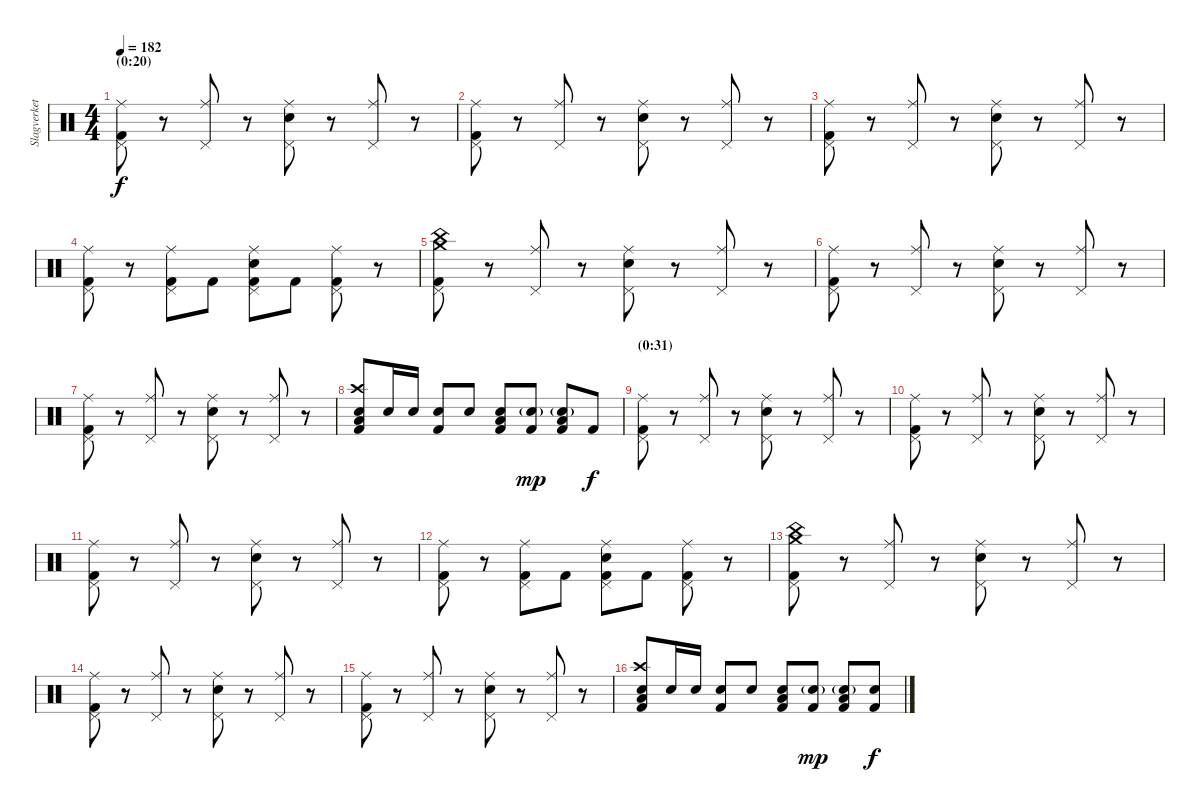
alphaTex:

\track ("Slagverket! =)" "Slagverket") {instrument percussion}
\staff {score}
\articulation defaults
\ts (4 4)
\section ("" "(0:20)")
\tempo 182
\clef neutral
\ks c
("Ride (middle)" "Pedal Hi-Hat (hit)" "Kick (hit) 2").8{dy f} r.8 ("Ride (middle)" "Pedal Hi-Hat (hit)").8 r.8 ("Ride (middle)" "Pedal Hi-Hat (hit)" "Snare (hit) 2").8 r.8 ("Ride (middle)" "Pedal Hi-Hat (hit)").8 r.8 |
("Ride (middle)" "Pedal Hi-Hat (hit)" "Kick (hit) 2").8 r.8 ("Ride (middle)" "Pedal Hi-Hat (hit)").8 r.8 ("Ride (middle)" "Pedal Hi-Hat (hit)" "Snare (hit) 2").8 r.8 ("Ride (middle)" "Pedal Hi-Hat (hit)").8 r.8 |
("Ride (middle)" "Pedal Hi-Hat (hit)" "Kick (hit) 2").8 r.8 ("Ride (middle)" "Pedal Hi-Hat (hit)").8 r.8 ("Ride (middle)" "Pedal Hi-Hat (hit)" "Snare (hit) 2").8 r.8 ("Ride (middle)" "Pedal Hi-Hat (hit)").8 r.8 |
("Ride (middle)" "Pedal Hi-Hat (hit)" "Kick (hit) 2").8 r.8 ("Ride (middle)" "Pedal Hi-Hat (hit)" "Kick (hit) 2").8 "Kick (hit) 2".8 ("Ride (middle)" "Pedal Hi-Hat (hit)" "Snare (hit) 2" "Kick (hit) 2").8 "Kick (hit) 2".8 ("Ride (middle)" "Pedal Hi-Hat (hit)" "Kick (hit) 2").8 r.8 |
("China (hit)" "Pedal Hi-Hat (hit)" "Crash medium (hit)" "Kick (hit) 2").8 r.8 ("Ride (middle)" "Pedal Hi-Hat (hit)").8 r.8 ("Ride (middle)" "Pedal Hi-Hat (hit)" "Snare (hit) 2").8 r.8 ("Ride (middle)" "Pedal Hi-Hat (hit)").8 r.8 |
("Ride (middle)" "Pedal Hi-Hat (hit)" "Kick (hit) 2").8 r.8 ("Ride (middle)" "Pedal Hi-Hat (hit)").8 r.8 ("Ride (middle)" "Pedal Hi-Hat (hit)" "Snare (hit) 2").8 r.8 ("Ride (middle)" "Pedal Hi-Hat (hit)").8 r.8 |
("Ride (middle)" "Pedal Hi-Hat (hit)" "Kick (hit) 2").8 r.8 ("Ride (middle)" "Pedal Hi-Hat (hit)").8 r.8 ("Ride (middle)" "Pedal Hi-Hat (hit)" "Snare (hit) 2").8 r.8 ("Ride (middle)" "Pedal Hi-Hat (hit)").8 r.8 |
("Crash high (hit)" "Low Tom (hit)" "Snare (hit) 2" "Kick (hit) 2").8 "Snare (hit) 2".16 "Snare (hit) 2".16 ("Snare (hit) 2" "Kick (hit) 2").8 "Snare (hit) 2".8 ("Low Tom (hit)" "Snare (hit) 2" "Kick (hit) 2").8 ("Snare (hit) 2"{g} "Kick (hit) 2").8{dy mp} ("Low Tom (hit)" "Snare (hit) 2"{g} "Kick (hit) 2").8 "Kick (hit) 2".8{dy f} |
\section ("" "(0:31)")
("Ride (middle)" "Pedal Hi-Hat (hit)" "Kick (hit) 2").8 r.8 ("Ride (middle)" "Pedal Hi-Hat (hit)").8 r.8 ("Ride (middle)" "Pedal Hi-Hat (hit)" "Snare (hit) 2").8 r.8 ("Ride (middle)" "Pedal Hi-Hat (hit)").8 r.8 |
("Ride (middle)" "Pedal Hi-Hat (hit)" "Kick (hit) 2").8 r.8 ("Ride (middle)" "Pedal Hi-Hat (hit)").8 r.8 ("Ride (middle)" "Pedal Hi-Hat (hit)" "Snare (hit) 2").8 r.8 ("Ride (middle)" "Pedal Hi-Hat (hit)").8 r.8 |
("Ride (middle)" "Pedal Hi-Hat (hit)" "Kick (hit) 2").8 r.8 ("Ride (middle)" "Pedal Hi-Hat (hit)").8 r.8 ("Ride (middle)" "Pedal Hi-Hat (hit)" "Snare (hit) 2").8 r.8 ("Ride (middle)" "Pedal Hi-Hat (hit)").8 r.8 |
("Ride (middle)" "Pedal Hi-Hat (hit)" "Kick (hit) 2").8 r.8 ("Ride (middle)" "Pedal Hi-Hat (hit)" "Kick (hit) 2").8 "Kick (hit) 2".8 ("Ride (middle)" "Pedal Hi-Hat (hit)" "Snare (hit) 2" "Kick (hit) 2").8 "Kick (hit) 2".8 ("Ride (middle)" "Pedal Hi-Hat (hit)" "Kick (hit) 2").8 r.8 |
("China (hit)" "Pedal Hi-Hat (hit)" "Crash medium (hit)" "Kick (hit) 2").8 r.8 ("Ride (middle)" "Pedal Hi-Hat (hit)").8 r.8 ("Ride (middle)" "Pedal Hi-Hat (hit)" "Snare (hit) 2").8 r.8 ("Ride (middle)" "Pedal Hi-Hat (hit)").8 r.8 |
("Ride (middle)" "Pedal Hi-Hat (hit)" "Kick (hit) 2").8 r.8 ("Ride (middle)" "Pedal Hi-Hat (hit)").8 r.8 ("Ride (middle)" "Pedal Hi-Hat (hit)" "Snare (hit) 2").8 r.8 ("Ride (middle)" "Pedal Hi-Hat (hit)").8 r.8 |
("Ride (middle)" "Pedal Hi-Hat (hit)" "Kick (hit) 2").8 r.8 ("Ride (middle)" "Pedal Hi-Hat (hit)").8 r.8 ("Ride (middle)" "Pedal Hi-Hat (hit)" "Snare (hit) 2").8 r.8 ("Ride (middle)" "Pedal Hi-Hat (hit)").8 r.8 |
("Crash high (hit)" "Low Tom (hit)" "Snare (hit) 2" "Kick (hit) 2").8 "Snare (hit) 2".16 "Snare (hit) 2".16 ("Snare (hit) 2" "Kick (hit) 2").8 "Snare (hit) 2".8 ("Low Tom (hit)" "Snare (hit) 2" "Kick (hit) 2").8 ("Snare (hit) 2"{g} "Kick (hit) 2").8{dy mp} ("Low Tom (hit)" "Snare (hit) 2"{g} "Kick (hit) 2").8 ("Snare (hit) 2" "Kick (hit) 2").8{dy f}
